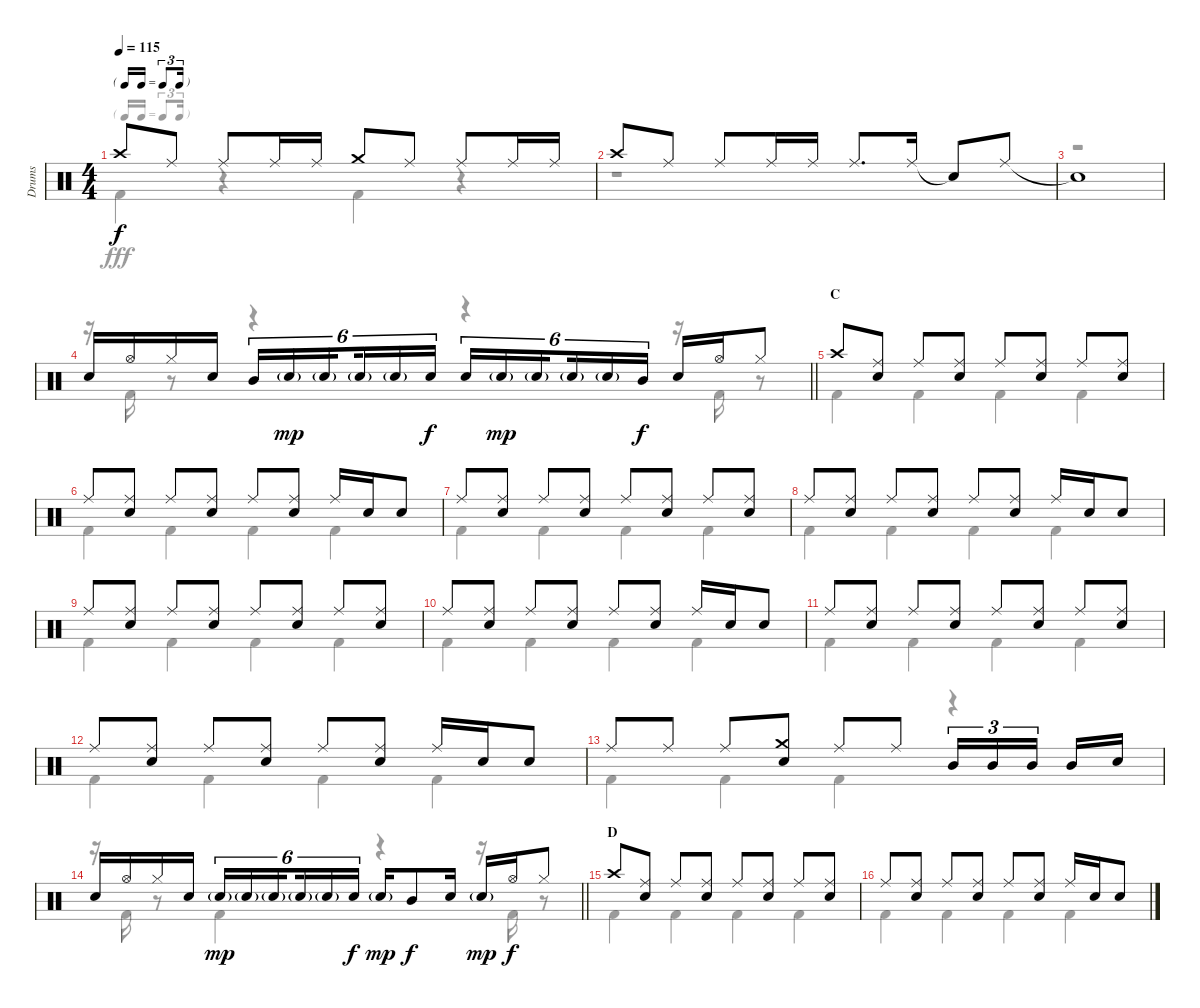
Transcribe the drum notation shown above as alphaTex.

\track ("Drums" "Drums") {instrument percussion}
\staff {score}
\articulation defaults
\voice
\ts (4 4)
\tf triplet16th
\tempo 115
\clef neutral
\ks c "Crash high (hit)".8{dy f} "Ride (middle)".8 "Ride (middle)".8 "Ride (middle)".16 "Ride (middle)".16 "Crash medium (hit)".8 "Ride (middle)".8 "Ride (middle)".8 "Ride (middle)".16 "Ride (middle)".16
|
"Crash high (hit)".8 "Ride (middle)".8 "Ride (middle)".8 "Ride (middle)".16 "Ride (middle)".16 "Ride (middle)".8{d} "Ride (middle)".16 "Snare (hit)"{t}.8 "Ride (middle)".8 |
"Snare (hit)"{t}.1 |
\barLineRight lightlight "Snare (hit) 2".16 "Hi-Hat (open)".16 "Hi-Hat (closed)".16 "Snare (hit) 2".16 "Mid Tom (hit)".16{tu (6 4)} "Snare (hit) 2"{g}.16{tu (6 4) dy mp} "Snare (hit) 2"{g}.16{tu (6 4) beam splitsecondary} "Snare (hit) 2"{g}.16{tu (6 4)} "Snare (hit) 2"{g}.16{tu (6 4)} "Snare (hit) 2".16{tu (6 4) dy f} "Snare (hit) 2".16{tu (6 4)} "Snare (hit) 2"{g}.16{tu (6 4) dy mp} "Snare (hit) 2"{g}.16{tu (6 4) beam splitsecondary} "Snare (hit) 2"{g}.16{tu (6 4)} "Snare (hit) 2"{g}.16{tu (6 4)} "Mid Tom (hit)".16{tu (6 4) dy f} "Snare (hit) 2".16 "Hi-Hat (open)".16 "Hi-Hat (closed)".8
|
\section ("" "C")
"Crash high (hit)".8 ("Ride (middle)" "Snare (hit) 2").8 "Ride (middle)".8 ("Ride (middle)" "Snare (hit) 2").8 "Ride (middle)".8 ("Ride (middle)" "Snare (hit) 2").8 "Ride (middle)".8 ("Ride (middle)" "Snare (hit) 2").8 |
"Ride (middle)".8 ("Ride (middle)" "Snare (hit) 2").8 "Ride (middle)".8 ("Ride (middle)" "Snare (hit) 2").8 "Ride (middle)".8 ("Ride (middle)" "Snare (hit) 2").8 "Ride (middle)".16 "Snare (hit) 2".16 "Snare (hit) 2".8 |
"Ride (middle)".8 ("Ride (middle)" "Snare (hit) 2").8 "Ride (middle)".8 ("Ride (middle)" "Snare (hit) 2").8 "Ride (middle)".8 ("Ride (middle)" "Snare (hit) 2").8 "Ride (middle)".8 ("Ride (middle)" "Snare (hit) 2").8 |
"Ride (middle)".8 ("Ride (middle)" "Snare (hit) 2").8 "Ride (middle)".8 ("Ride (middle)" "Snare (hit) 2").8 "Ride (middle)".8 ("Ride (middle)" "Snare (hit) 2").8 "Ride (middle)".16 "Snare (hit) 2".16 "Snare (hit) 2".8 |
"Ride (middle)".8 ("Ride (middle)" "Snare (hit) 2").8 "Ride (middle)".8 ("Ride (middle)" "Snare (hit) 2").8 "Ride (middle)".8 ("Ride (middle)" "Snare (hit) 2").8 "Ride (middle)".8 ("Ride (middle)" "Snare (hit) 2").8 |
"Ride (middle)".8 ("Ride (middle)" "Snare (hit) 2").8 "Ride (middle)".8 ("Ride (middle)" "Snare (hit) 2").8 "Ride (middle)".8 ("Ride (middle)" "Snare (hit) 2").8 "Ride (middle)".16 "Snare (hit) 2".16 "Snare (hit) 2".8 |
"Ride (middle)".8 ("Ride (middle)" "Snare (hit) 2").8 "Ride (middle)".8 ("Ride (middle)" "Snare (hit) 2").8 "Ride (middle)".8 ("Ride (middle)" "Snare (hit) 2").8 "Ride (middle)".8 ("Ride (middle)" "Snare (hit) 2").8 |
"Ride (middle)".8 ("Ride (middle)" "Snare (hit) 2").8 "Ride (middle)".8 ("Ride (middle)" "Snare (hit) 2").8 "Ride (middle)".8 ("Ride (middle)" "Snare (hit) 2").8 "Ride (middle)".16 "Snare (hit) 2".16 "Snare (hit) 2".8 |
"Ride (middle)".8 "Ride (middle)".8 "Ride (middle)".8 ("Crash medium (hit)" "Snare (hit) 2").8 "Ride (middle)".8 "Ride (middle)".8 "Mid Tom (hit)".16{tu (3 2)} "Mid Tom (hit)".16{tu (3 2)} "Mid Tom (hit)".16{tu (3 2) beam splitsecondary} "Mid Tom (hit)".16 "Snare (hit) 2".16 |
\barLineRight lightlight "Snare (hit) 2".16 "Hi-Hat (open)".16 "Hi-Hat (closed)".16 "Snare (hit) 2".16 "Snare (hit) 2"{g}.16{tu (6 4) dy mp} "Snare (hit) 2"{g}.16{tu (6 4)} "Snare (hit) 2"{g}.16{tu (6 4) beam splitsecondary} "Snare (hit) 2"{g}.16{tu (6 4)} "Snare (hit) 2"{g}.16{tu (6 4)} "Snare (hit) 2".16{tu (6 4) dy f} "Snare (hit) 2"{g}.16{dy mp} "Mid Tom (hit)".8{dy f} "Snare (hit) 2".16 "Snare (hit) 2"{g}.16{dy mp} "Hi-Hat (open)".16{dy f} "Hi-Hat (closed)".8
|
\section ("" "D")
"Crash high (hit)".8 ("Ride (middle)" "Snare (hit) 2").8 "Ride (middle)".8 ("Ride (middle)" "Snare (hit) 2").8 "Ride (middle)".8 ("Ride (middle)" "Snare (hit) 2").8 "Ride (middle)".8 ("Ride (middle)" "Snare (hit) 2").8 |
"Ride (middle)".8 ("Ride (middle)" "Snare (hit) 2").8 "Ride (middle)".8 ("Ride (middle)" "Snare (hit) 2").8 "Ride (middle)".8 ("Ride (middle)" "Snare (hit) 2").8 "Ride (middle)".16 "Snare (hit) 2".16 "Snare (hit) 2".8
\voice
\clef neutral
\ottava regular
\simile none
\ks c "Kick (hit) 2".4{dy fff}
r.4 "Kick (hit) 2".4 r.4 |
r.1 |
r.1 |
\barLineRight lightlight
r.16 "Kick (hit) 2".16 r.8 r.4 r.4 r.16 "Kick (hit) 2".16 r.8 |
"Kick (hit) 2".4 "Kick (hit) 2".4 "Kick (hit) 2".4 "Kick (hit) 2".4 |
"Kick (hit) 2".4 "Kick (hit) 2".4 "Kick (hit) 2".4 "Kick (hit) 2".4 |
"Kick (hit) 2".4 "Kick (hit) 2".4 "Kick (hit) 2".4 "Kick (hit) 2".4 |
"Kick (hit) 2".4 "Kick (hit) 2".4 "Kick (hit) 2".4 "Kick (hit) 2".4 |
"Kick (hit) 2".4 "Kick (hit) 2".4 "Kick (hit) 2".4 "Kick (hit) 2".4 |
"Kick (hit) 2".4 "Kick (hit) 2".4 "Kick (hit) 2".4 "Kick (hit) 2".4 |
"Kick (hit) 2".4 "Kick (hit) 2".4 "Kick (hit) 2".4 "Kick (hit) 2".4 |
"Kick (hit) 2".4 "Kick (hit) 2".4 "Kick (hit) 2".4 "Kick (hit) 2".4 |
"Kick (hit) 2".4 "Kick (hit) 2".4 "Kick (hit) 2".4 r.4 |
\barLineRight lightlight
r.16 "Kick (hit) 2".16 r.8 "Kick (hit) 2".4 r.4 r.16 "Kick (hit) 2".16 r.8 |
"Kick (hit) 2".4 "Kick (hit) 2".4 "Kick (hit) 2".4 "Kick (hit) 2".4 |
"Kick (hit) 2".4 "Kick (hit) 2".4 "Kick (hit) 2".4 "Kick (hit) 2".4
